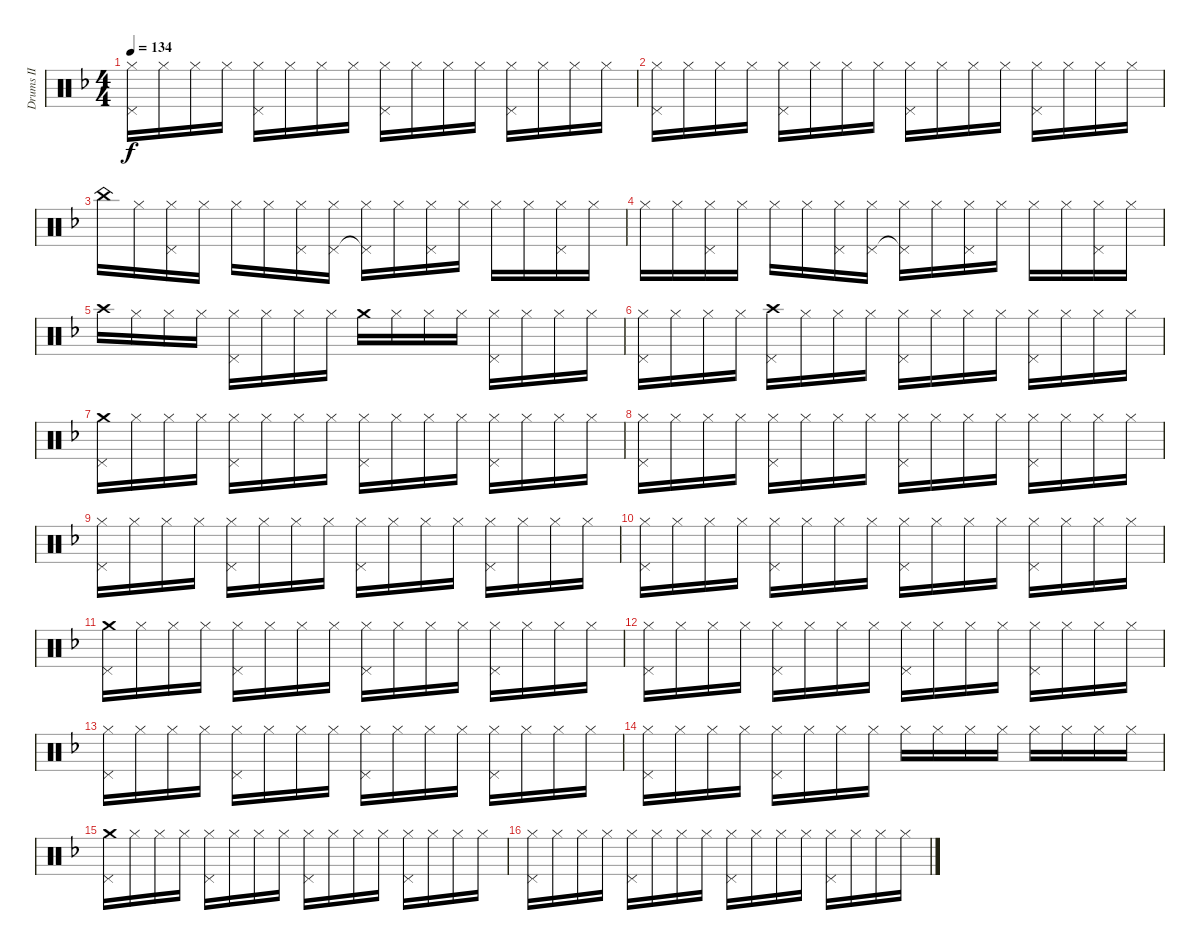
\track ("Drums II" "Drums II") {instrument percussion}
\staff {score}
\articulation defaults
\ts (4 4)
\tempo 134
\clef neutral
\ks f
("Hi-Hat (closed)" "Pedal Hi-Hat (hit)").16{dy f} "Hi-Hat (closed)".16 "Hi-Hat (closed)".16 "Hi-Hat (closed)".16 ("Hi-Hat (closed)" "Pedal Hi-Hat (hit)").16 "Hi-Hat (closed)".16 "Hi-Hat (closed)".16 "Hi-Hat (closed)".16 ("Hi-Hat (closed)" "Pedal Hi-Hat (hit)").16 "Hi-Hat (closed)".16 "Hi-Hat (closed)".16 "Hi-Hat (closed)".16 ("Hi-Hat (closed)" "Pedal Hi-Hat (hit)").16 "Hi-Hat (closed)".16 "Hi-Hat (closed)".16 "Hi-Hat (closed)".16 |
("Hi-Hat (closed)" "Pedal Hi-Hat (hit)").16 "Hi-Hat (closed)".16 "Hi-Hat (closed)".16 "Hi-Hat (closed)".16 ("Hi-Hat (closed)" "Pedal Hi-Hat (hit)").16 "Hi-Hat (closed)".16 "Hi-Hat (closed)".16 "Hi-Hat (closed)".16 ("Hi-Hat (closed)" "Pedal Hi-Hat (hit)").16 "Hi-Hat (closed)".16 "Hi-Hat (closed)".16 "Hi-Hat (closed)".16 ("Hi-Hat (closed)" "Pedal Hi-Hat (hit)").16 "Hi-Hat (closed)".16 "Hi-Hat (closed)".16 "Hi-Hat (closed)".16 |
"China (hit)".16 "Hi-Hat (closed)".16 ("Hi-Hat (closed)" "Pedal Hi-Hat (hit)").16 "Hi-Hat (closed)".16 "Hi-Hat (closed)".16 "Hi-Hat (closed)".16 ("Hi-Hat (closed)" "Pedal Hi-Hat (hit)").16 ("Hi-Hat (closed)" "Pedal Hi-Hat (hit)").16 ("Hi-Hat (closed)" "Pedal Hi-Hat (hit)"{t}).16 "Hi-Hat (closed)".16 ("Hi-Hat (closed)" "Pedal Hi-Hat (hit)").16 "Hi-Hat (closed)".16 "Hi-Hat (closed)".16 "Hi-Hat (closed)".16 ("Hi-Hat (closed)" "Pedal Hi-Hat (hit)").16 "Hi-Hat (closed)".16 |
"Hi-Hat (closed)".16 "Hi-Hat (closed)".16 ("Hi-Hat (closed)" "Pedal Hi-Hat (hit)").16 "Hi-Hat (closed)".16 "Hi-Hat (closed)".16 "Hi-Hat (closed)".16 ("Hi-Hat (closed)" "Pedal Hi-Hat (hit)").16 ("Hi-Hat (closed)" "Pedal Hi-Hat (hit)").16 ("Hi-Hat (closed)" "Pedal Hi-Hat (hit)"{t}).16 "Hi-Hat (closed)".16 ("Hi-Hat (closed)" "Pedal Hi-Hat (hit)").16 "Hi-Hat (closed)".16 "Hi-Hat (closed)".16 "Hi-Hat (closed)".16 ("Hi-Hat (closed)" "Pedal Hi-Hat (hit)").16 "Hi-Hat (closed)".16 |
"Crash high (hit)".16 "Hi-Hat (closed)".16 "Hi-Hat (closed)".16 "Hi-Hat (closed)".16 ("Hi-Hat (closed)" "Pedal Hi-Hat (hit)").16 "Hi-Hat (closed)".16 "Hi-Hat (closed)".16 "Hi-Hat (closed)".16 "Crash medium (hit)".16 "Hi-Hat (closed)".16 "Hi-Hat (closed)".16 "Hi-Hat (closed)".16 ("Hi-Hat (closed)" "Pedal Hi-Hat (hit)").16 "Hi-Hat (closed)".16 "Hi-Hat (closed)".16 "Hi-Hat (closed)".16 |
("Hi-Hat (closed)" "Pedal Hi-Hat (hit)").16 "Hi-Hat (closed)".16 "Hi-Hat (closed)".16 "Hi-Hat (closed)".16 ("Crash high (hit)" "Pedal Hi-Hat (hit)").16 "Hi-Hat (closed)".16 "Hi-Hat (closed)".16 "Hi-Hat (closed)".16 ("Hi-Hat (closed)" "Pedal Hi-Hat (hit)").16 "Hi-Hat (closed)".16 "Hi-Hat (closed)".16 "Hi-Hat (closed)".16 ("Hi-Hat (closed)" "Pedal Hi-Hat (hit)").16 "Hi-Hat (closed)".16 "Hi-Hat (closed)".16 "Hi-Hat (closed)".16 |
("Crash medium (hit)" "Pedal Hi-Hat (hit)").16 "Hi-Hat (closed)".16 "Hi-Hat (closed)".16 "Hi-Hat (closed)".16 ("Hi-Hat (closed)" "Pedal Hi-Hat (hit)").16 "Hi-Hat (closed)".16 "Hi-Hat (closed)".16 "Hi-Hat (closed)".16 ("Hi-Hat (closed)" "Pedal Hi-Hat (hit)").16 "Hi-Hat (closed)".16 "Hi-Hat (closed)".16 "Hi-Hat (closed)".16 ("Hi-Hat (closed)" "Pedal Hi-Hat (hit)").16 "Hi-Hat (closed)".16 "Hi-Hat (closed)".16 "Hi-Hat (closed)".16 |
("Hi-Hat (closed)" "Pedal Hi-Hat (hit)").16 "Hi-Hat (closed)".16 "Hi-Hat (closed)".16 "Hi-Hat (closed)".16 ("Hi-Hat (closed)" "Pedal Hi-Hat (hit)").16 "Hi-Hat (closed)".16 "Hi-Hat (closed)".16 "Hi-Hat (closed)".16 ("Hi-Hat (closed)" "Pedal Hi-Hat (hit)").16 "Hi-Hat (closed)".16 "Hi-Hat (closed)".16 "Hi-Hat (closed)".16 ("Hi-Hat (closed)" "Pedal Hi-Hat (hit)").16 "Hi-Hat (closed)".16 "Hi-Hat (closed)".16 "Hi-Hat (closed)".16 |
("Hi-Hat (closed)" "Pedal Hi-Hat (hit)").16 "Hi-Hat (closed)".16 "Hi-Hat (closed)".16 "Hi-Hat (closed)".16 ("Hi-Hat (closed)" "Pedal Hi-Hat (hit)").16 "Hi-Hat (closed)".16 "Hi-Hat (closed)".16 "Hi-Hat (closed)".16 ("Hi-Hat (closed)" "Pedal Hi-Hat (hit)").16 "Hi-Hat (closed)".16 "Hi-Hat (closed)".16 "Hi-Hat (closed)".16 ("Hi-Hat (closed)" "Pedal Hi-Hat (hit)").16 "Hi-Hat (closed)".16 "Hi-Hat (closed)".16 "Hi-Hat (closed)".16 |
("Hi-Hat (closed)" "Pedal Hi-Hat (hit)").16 "Hi-Hat (closed)".16 "Hi-Hat (closed)".16 "Hi-Hat (closed)".16 ("Hi-Hat (closed)" "Pedal Hi-Hat (hit)").16 "Hi-Hat (closed)".16 "Hi-Hat (closed)".16 "Hi-Hat (closed)".16 ("Hi-Hat (closed)" "Pedal Hi-Hat (hit)").16 "Hi-Hat (closed)".16 "Hi-Hat (closed)".16 "Hi-Hat (closed)".16 ("Hi-Hat (closed)" "Pedal Hi-Hat (hit)").16 "Hi-Hat (closed)".16 "Hi-Hat (closed)".16 "Hi-Hat (closed)".16 |
("Crash medium (hit)" "Pedal Hi-Hat (hit)").16 "Hi-Hat (closed)".16 "Hi-Hat (closed)".16 "Hi-Hat (closed)".16 ("Hi-Hat (closed)" "Pedal Hi-Hat (hit)").16 "Hi-Hat (closed)".16 "Hi-Hat (closed)".16 "Hi-Hat (closed)".16 ("Hi-Hat (closed)" "Pedal Hi-Hat (hit)").16 "Hi-Hat (closed)".16 "Hi-Hat (closed)".16 "Hi-Hat (closed)".16 ("Hi-Hat (closed)" "Pedal Hi-Hat (hit)").16 "Hi-Hat (closed)".16 "Hi-Hat (closed)".16 "Hi-Hat (closed)".16 |
("Hi-Hat (closed)" "Pedal Hi-Hat (hit)").16 "Hi-Hat (closed)".16 "Hi-Hat (closed)".16 "Hi-Hat (closed)".16 ("Hi-Hat (closed)" "Pedal Hi-Hat (hit)").16 "Hi-Hat (closed)".16 "Hi-Hat (closed)".16 "Hi-Hat (closed)".16 ("Hi-Hat (closed)" "Pedal Hi-Hat (hit)").16 "Hi-Hat (closed)".16 "Hi-Hat (closed)".16 "Hi-Hat (closed)".16 ("Hi-Hat (closed)" "Pedal Hi-Hat (hit)").16 "Hi-Hat (closed)".16 "Hi-Hat (closed)".16 "Hi-Hat (closed)".16 |
("Hi-Hat (closed)" "Pedal Hi-Hat (hit)").16 "Hi-Hat (closed)".16 "Hi-Hat (closed)".16 "Hi-Hat (closed)".16 ("Hi-Hat (closed)" "Pedal Hi-Hat (hit)").16 "Hi-Hat (closed)".16 "Hi-Hat (closed)".16 "Hi-Hat (closed)".16 ("Hi-Hat (closed)" "Pedal Hi-Hat (hit)").16 "Hi-Hat (closed)".16 "Hi-Hat (closed)".16 "Hi-Hat (closed)".16 ("Hi-Hat (closed)" "Pedal Hi-Hat (hit)").16 "Hi-Hat (closed)".16 "Hi-Hat (closed)".16 "Hi-Hat (closed)".16 |
("Hi-Hat (closed)" "Pedal Hi-Hat (hit)").16 "Hi-Hat (closed)".16 "Hi-Hat (closed)".16 "Hi-Hat (closed)".16 ("Hi-Hat (closed)" "Pedal Hi-Hat (hit)").16 "Hi-Hat (closed)".16 "Hi-Hat (closed)".16 "Hi-Hat (closed)".16 "Hi-Hat (closed)".16 "Hi-Hat (closed)".16 "Hi-Hat (closed)".16 "Hi-Hat (closed)".16 "Hi-Hat (closed)".16 "Hi-Hat (closed)".16 "Hi-Hat (closed)".16 "Hi-Hat (closed)".16 |
("Crash medium (hit)" "Pedal Hi-Hat (hit)").16 "Hi-Hat (closed)".16 "Hi-Hat (closed)".16 "Hi-Hat (closed)".16 ("Hi-Hat (closed)" "Pedal Hi-Hat (hit)").16 "Hi-Hat (closed)".16 "Hi-Hat (closed)".16 "Hi-Hat (closed)".16 ("Hi-Hat (closed)" "Pedal Hi-Hat (hit)").16 "Hi-Hat (closed)".16 "Hi-Hat (closed)".16 "Hi-Hat (closed)".16 ("Hi-Hat (closed)" "Pedal Hi-Hat (hit)").16 "Hi-Hat (closed)".16 "Hi-Hat (closed)".16 "Hi-Hat (closed)".16 |
("Hi-Hat (closed)" "Pedal Hi-Hat (hit)").16 "Hi-Hat (closed)".16 "Hi-Hat (closed)".16 "Hi-Hat (closed)".16 ("Hi-Hat (closed)" "Pedal Hi-Hat (hit)").16 "Hi-Hat (closed)".16 "Hi-Hat (closed)".16 "Hi-Hat (closed)".16 ("Hi-Hat (closed)" "Pedal Hi-Hat (hit)").16 "Hi-Hat (closed)".16 "Hi-Hat (closed)".16 "Hi-Hat (closed)".16 ("Hi-Hat (closed)" "Pedal Hi-Hat (hit)").16 "Hi-Hat (closed)".16 "Hi-Hat (closed)".16 "Hi-Hat (closed)".16
